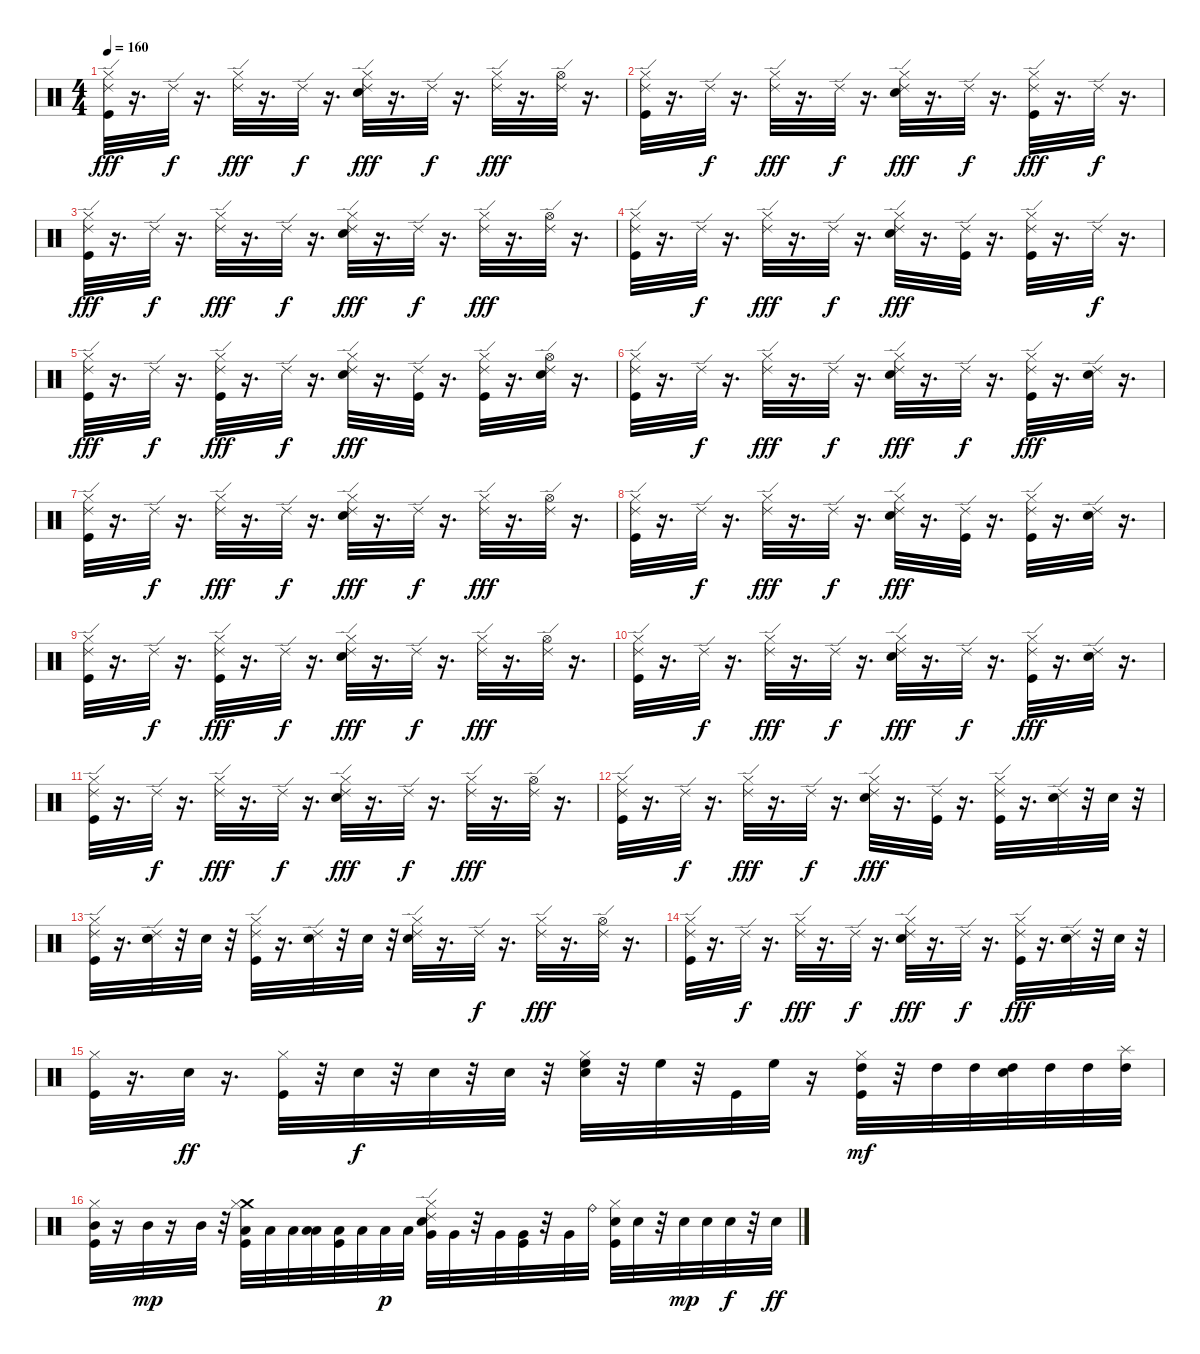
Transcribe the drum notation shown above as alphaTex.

\track "" {instrument percussion}
\staff {score}
\articulation defaults
\ts (4 4)
\tempo 160
\clef neutral
\ks c
("Hi-Hat (closed)" "Kick (hit)" "Ride (edge) 2").32{dy fff} r.16{d} "Ride (edge) 2".32{dy f} r.16{d} ("Hi-Hat (closed)" "Ride (edge) 2").32{dy fff} r.16{d} "Ride (edge) 2".32{dy f} r.16{d} ("Hi-Hat (closed)" "Electric Snare (hit)" "Ride (edge) 2").32{dy fff} r.16{d} "Ride (edge) 2".32{dy f} r.16{d} ("Hi-Hat (closed)" "Ride (edge) 2").32{dy fff} r.16{d} ("Hi-Hat (open)" "Ride (edge) 2").32 r.16{d} |
("Hi-Hat (closed)" "Kick (hit)" "Ride (edge) 2").32 r.16{d} "Ride (edge) 2".32{dy f} r.16{d} ("Hi-Hat (closed)" "Ride (edge) 2").32{dy fff} r.16{d} "Ride (edge) 2".32{dy f} r.16{d} ("Electric Snare (hit)" "Hi-Hat (closed)" "Ride (edge) 2").32{dy fff} r.16{d} "Ride (edge) 2".32{dy f} r.16{d} ("Hi-Hat (closed)" "Kick (hit)" "Ride (edge) 2").32{dy fff} r.16{d} "Ride (edge) 2".32{dy f} r.16{d} |
("Hi-Hat (closed)" "Kick (hit)" "Ride (edge) 2").32{dy fff} r.16{d} "Ride (edge) 2".32{dy f} r.16{d} ("Hi-Hat (closed)" "Ride (edge) 2").32{dy fff} r.16{d} "Ride (edge) 2".32{dy f} r.16{d} ("Electric Snare (hit)" "Hi-Hat (closed)" "Ride (edge) 2").32{dy fff} r.16{d} "Ride (edge) 2".32{dy f} r.16{d} ("Hi-Hat (closed)" "Ride (edge) 2").32{dy fff} r.16{d} ("Hi-Hat (open)" "Ride (edge) 2").32 r.16{d} |
("Kick (hit)" "Hi-Hat (closed)" "Ride (edge) 2").32 r.16{d} "Ride (edge) 2".32{dy f} r.16{d} ("Hi-Hat (closed)" "Ride (edge) 2").32{dy fff} r.16{d} "Ride (edge) 2".32{dy f} r.16{d} ("Electric Snare (hit)" "Hi-Hat (closed)" "Ride (edge) 2").32{dy fff} r.16{d} ("Kick (hit)" "Ride (edge) 2").32 r.16{d} ("Kick (hit)" "Hi-Hat (closed)" "Ride (edge) 2").32 r.16{d} "Ride (edge) 2".32{dy f} r.16{d} |
("Kick (hit)" "Hi-Hat (closed)" "Ride (edge) 2").32{dy fff} r.16{d} "Ride (edge) 2".32{dy f} r.16{d} ("Kick (hit)" "Hi-Hat (closed)" "Ride (edge) 2").32{dy fff} r.16{d} "Ride (edge) 2".32{dy f} r.16{d} ("Electric Snare (hit)" "Hi-Hat (closed)" "Ride (edge) 2").32{dy fff} r.16{d} ("Kick (hit)" "Ride (edge) 2").32 r.16{d} ("Kick (hit)" "Hi-Hat (closed)" "Ride (edge) 2").32 r.16{d} ("Electric Snare (hit)" "Hi-Hat (open)" "Ride (edge) 2").32 r.16{d} |
("Kick (hit)" "Hi-Hat (closed)" "Ride (edge) 2").32 r.16{d} "Ride (edge) 2".32{dy f} r.16{d} ("Hi-Hat (closed)" "Ride (edge) 2").32{dy fff} r.16{d} "Ride (edge) 2".32{dy f} r.16{d} ("Hi-Hat (closed)" "Electric Snare (hit)" "Ride (edge) 2").32{dy fff} r.16{d} "Ride (edge) 2".32{dy f} r.16{d} ("Hi-Hat (closed)" "Kick (hit)" "Ride (edge) 2").32{dy fff} r.16{d} ("Electric Snare (hit)" "Ride (edge) 2").32 r.16{d} |
("Hi-Hat (closed)" "Kick (hit)" "Ride (edge) 2").32 r.16{d} "Ride (edge) 2".32{dy f} r.16{d} ("Hi-Hat (closed)" "Ride (edge) 2").32{dy fff} r.16{d} "Ride (edge) 2".32{dy f} r.16{d} ("Hi-Hat (closed)" "Electric Snare (hit)" "Ride (edge) 2").32{dy fff} r.16{d} "Ride (edge) 2".32{dy f} r.16{d} ("Hi-Hat (closed)" "Ride (edge) 2").32{dy fff} r.16{d} ("Hi-Hat (open)" "Ride (edge) 2").32 r.16{d} |
("Hi-Hat (closed)" "Kick (hit)" "Ride (edge) 2").32 r.16{d} "Ride (edge) 2".32{dy f} r.16{d} ("Hi-Hat (closed)" "Ride (edge) 2").32{dy fff} r.16{d} "Ride (edge) 2".32{dy f} r.16{d} ("Hi-Hat (closed)" "Electric Snare (hit)" "Ride (edge) 2").32{dy fff} r.16{d} ("Kick (hit)" "Ride (edge) 2").32 r.16{d} ("Hi-Hat (closed)" "Kick (hit)" "Ride (edge) 2").32 r.16{d} ("Electric Snare (hit)" "Ride (edge) 2").32 r.16{d} |
("Hi-Hat (closed)" "Kick (hit)" "Ride (edge) 2").32 r.16{d} "Ride (edge) 2".32{dy f} r.16{d} ("Hi-Hat (closed)" "Kick (hit)" "Ride (edge) 2").32{dy fff} r.16{d} "Ride (edge) 2".32{dy f} r.16{d} ("Hi-Hat (closed)" "Electric Snare (hit)" "Ride (edge) 2").32{dy fff} r.16{d} "Ride (edge) 2".32{dy f} r.16{d} ("Hi-Hat (closed)" "Ride (edge) 2").32{dy fff} r.16{d} ("Hi-Hat (open)" "Ride (edge) 2").32 r.16{d} |
("Hi-Hat (closed)" "Kick (hit)" "Ride (edge) 2").32 r.16{d} "Ride (edge) 2".32{dy f} r.16{d} ("Hi-Hat (closed)" "Ride (edge) 2").32{dy fff} r.16{d} "Ride (edge) 2".32{dy f} r.16{d} ("Electric Snare (hit)" "Hi-Hat (closed)" "Ride (edge) 2").32{dy fff} r.16{d} "Ride (edge) 2".32{dy f} r.16{d} ("Kick (hit)" "Hi-Hat (closed)" "Ride (edge) 2").32{dy fff} r.16{d} ("Electric Snare (hit)" "Ride (edge) 2").32 r.16{d} |
("Kick (hit)" "Hi-Hat (closed)" "Ride (edge) 2").32 r.16{d} "Ride (edge) 2".32{dy f} r.16{d} ("Hi-Hat (closed)" "Ride (edge) 2").32{dy fff} r.16{d} "Ride (edge) 2".32{dy f} r.16{d} ("Electric Snare (hit)" "Hi-Hat (closed)" "Ride (edge) 2").32{dy fff} r.16{d} "Ride (edge) 2".32{dy f} r.16{d} ("Hi-Hat (closed)" "Ride (edge) 2").32{dy fff} r.16{d} ("Hi-Hat (open)" "Ride (edge) 2").32 r.16{d} |
("Kick (hit)" "Hi-Hat (closed)" "Ride (edge) 2").32 r.16{d} "Ride (edge) 2".32{dy f} r.16{d} ("Hi-Hat (closed)" "Ride (edge) 2").32{dy fff} r.16{d} "Ride (edge) 2".32{dy f} r.16{d} ("Electric Snare (hit)" "Hi-Hat (closed)" "Ride (edge) 2").32{dy fff} r.16{d} ("Kick (hit)" "Ride (edge) 2").32 r.16{d} ("Kick (hit)" "Hi-Hat (closed)" "Ride (edge) 2").32 r.16{d} ("Electric Snare (hit)" "Ride (edge) 2").32 r.32 "Electric Snare (hit)".32 r.32 |
("Hi-Hat (closed)" "Kick (hit)" "Ride (edge) 2").32 r.16{d} ("Electric Snare (hit)" "Electric Snare (hit)" "Ride (edge) 2").32 r.32 "Electric Snare (hit)".32 r.32 ("Hi-Hat (closed)" "Kick (hit)" "Ride (edge) 2").32 r.16{d} ("Electric Snare (hit)" "Ride (edge) 2").32 r.32 "Electric Snare (hit)".32 r.32 ("Hi-Hat (closed)" "Electric Snare (hit)" "Ride (edge) 2").32 r.16{d} "Ride (edge) 2".32{dy f} r.16{d} ("Hi-Hat (closed)" "Ride (edge) 2").32{dy fff} r.16{d} ("Hi-Hat (open)" "Ride (edge) 2").32 r.16{d} |
("Hi-Hat (closed)" "Kick (hit)" "Ride (edge) 2").32 r.16{d} "Ride (edge) 2".32{dy f} r.16{d} ("Hi-Hat (closed)" "Ride (edge) 2").32{dy fff} r.16{d} "Ride (edge) 2".32{dy f} r.16{d} ("Hi-Hat (closed)" "Electric Snare (hit)" "Ride (edge) 2").32{dy fff} r.16{d} "Ride (edge) 2".32{dy f} r.16{d} ("Kick (hit)" "Hi-Hat (closed)" "Ride (edge) 2").32{dy fff} r.16{d} ("Electric Snare (hit)" "Ride (edge) 2").32 r.32 "Electric Snare (hit)".32 r.32 |
("Hi-Hat (closed)" "Kick (hit)").32 r.16{d} "Electric Snare (hit)".32{dy ff} r.16{d} ("Kick (hit)" "Hi-Hat (closed)").32 r.32 "Electric Snare (hit)".32{dy f} r.32 "Electric Snare (hit)".32 r.32 "Electric Snare (hit)".32 r.32 ("Electric Snare (hit)" "Hi-Hat (closed)" "High Floor Tom (hit)").32 r.32 "High Floor Tom (hit)".32 r.32 "Kick (hit)".32 "High Floor Tom (hit)".32 r.16 ("Kick (hit)" "Hi-Hat (closed)" "High Tom (hit)").32{dy mf} r.32 "High Tom (hit)".32 "High Tom (hit)".32 ("High Tom (hit)" "Electric Snare (hit)").32 "High Tom (hit)".32 "High Tom (hit)".32 ("High Tom (hit)" "Splash (hit)").32 |
("Kick (hit)" "Hi-Hat (closed)" "Mid Tom (hit)").32 r.16 "Mid Tom (hit)".32{dy mp} r.16 "Mid Tom (hit)".32 r.32 ("Crash medium (hit)" "Low Tom (hit)" "Hi-Hat (closed)" "Kick (hit)").32 "Low Tom (hit)".32 "Low Tom (hit)".32 ("Low Tom (hit)" "Low Tom (hit)").32 ("Kick (hit)" "Low Tom (hit)").32 "Low Tom (hit)".32 "Low Tom (hit)".32{dy p} "Low Tom (hit)".32 ("Ride (edge) 2" "Hi-Hat (closed)" "Electric Snare (hit)" "Very Low Tom (hit)").32 "Very Low Tom (hit)".32 r.32 "Very Low Tom (hit)".32 ("Kick (hit)" "Very Low Tom (hit)").32 r.32 "Very Low Tom (hit)".32 "Ride (bell)".32 ("Electric Snare (hit)" "Hi-Hat (closed)" "Kick (hit)").32 "Electric Snare (hit)".32 r.32 "Electric Snare (hit)".32{dy mp} "Electric Snare (hit)".32 "Electric Snare (hit)".32{dy f} r.32 "Electric Snare (hit)".32{dy ff}
